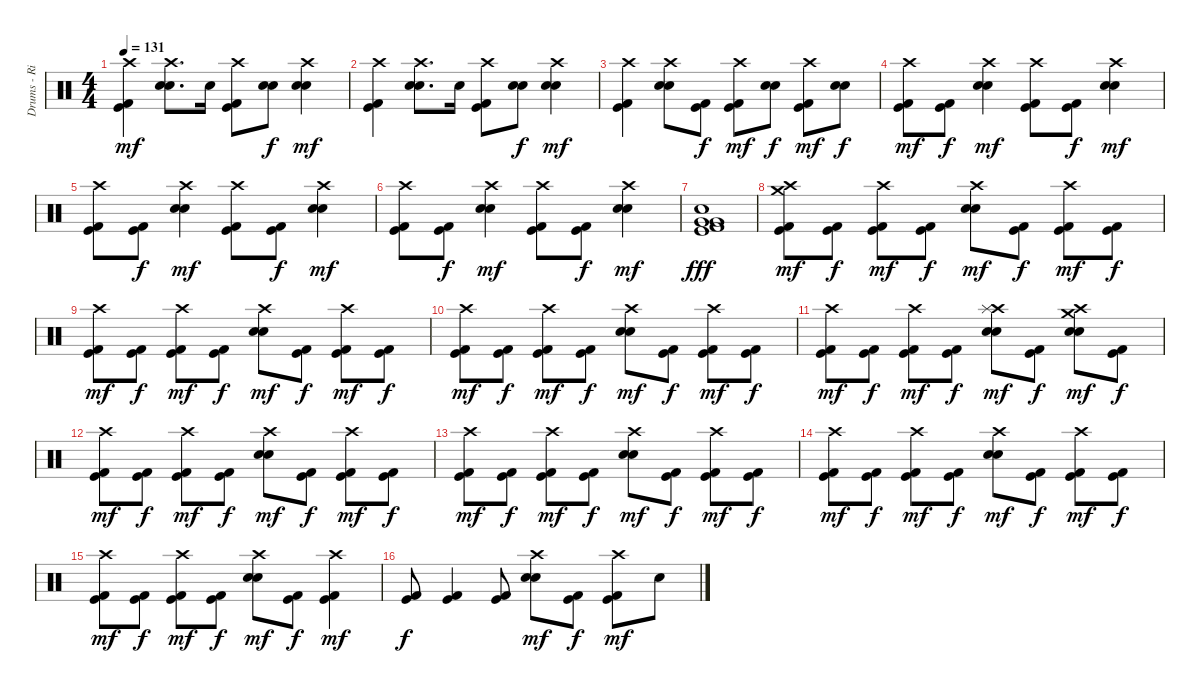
\track ("Drums - Rian" "Drums - Ri") {instrument percussion}
\staff
\articulation defaults
\ts (4 4)
\tempo 131
\clef neutral
\ks c
("Kick (hit) 2" "Kick (hit)" "Crash high (hit)").4{dy mf} ("Electric Snare (hit)" "Electric Snare (hit)" "Crash high (hit)").8{d} "Electric Snare (hit)".16 ("Kick (hit) 2" "Kick (hit)" "Crash high (hit)").8 ("Electric Snare (hit)" "Electric Snare (hit)").8{dy f} ("Electric Snare (hit)" "Electric Snare (hit)" "Crash high (hit)").4{dy mf} |
("Kick (hit) 2" "Kick (hit)" "Crash high (hit)").4 ("Electric Snare (hit)" "Electric Snare (hit)" "Crash high (hit)").8{d} "Electric Snare (hit)".16 ("Kick (hit) 2" "Kick (hit)" "Crash high (hit)").8 ("Electric Snare (hit)" "Electric Snare (hit)").8{dy f} ("Electric Snare (hit)" "Electric Snare (hit)" "Crash high (hit)").4{dy mf} |
("Kick (hit) 2" "Kick (hit)" "Crash high (hit)").4 ("Electric Snare (hit)" "Electric Snare (hit)" "Crash high (hit)").8 ("Kick (hit) 2" "Kick (hit)").8{dy f} ("Kick (hit) 2" "Kick (hit)" "Crash high (hit)").8{dy mf} ("Electric Snare (hit)" "Electric Snare (hit)").8{dy f} ("Kick (hit) 2" "Kick (hit)" "Crash high (hit)").8{dy mf} ("Electric Snare (hit)" "Electric Snare (hit)").8{dy f} |
("Kick (hit) 2" "Kick (hit)" "Crash high (hit)").8{dy mf} ("Kick (hit) 2" "Kick (hit)").8{dy f} ("Electric Snare (hit)" "Electric Snare (hit)" "Crash high (hit)").4{dy mf} ("Kick (hit) 2" "Kick (hit)" "Crash high (hit)").8 ("Kick (hit) 2" "Kick (hit)").8{dy f} ("Electric Snare (hit)" "Electric Snare (hit)" "Crash high (hit)").4{dy mf} |
("Kick (hit) 2" "Kick (hit)" "Crash high (hit)").8 ("Kick (hit) 2" "Kick (hit)").8{dy f} ("Electric Snare (hit)" "Electric Snare (hit)" "Crash high (hit)").4{dy mf} ("Kick (hit) 2" "Kick (hit)" "Crash high (hit)").8 ("Kick (hit) 2" "Kick (hit)").8{dy f} ("Electric Snare (hit)" "Electric Snare (hit)" "Crash high (hit)").4{dy mf} |
("Kick (hit) 2" "Kick (hit)" "Crash high (hit)").8 ("Kick (hit) 2" "Kick (hit)").8{dy f} ("Electric Snare (hit)" "Electric Snare (hit)" "Crash high (hit)").4{dy mf} ("Kick (hit) 2" "Kick (hit)" "Crash high (hit)").8 ("Kick (hit) 2" "Kick (hit)").8{dy f} ("Electric Snare (hit)" "Electric Snare (hit)" "Crash high (hit)").4{dy mf} |
("Kick (hit) 2" "Kick (hit)" "Electric Snare (hit)" "Very Low Tom (hit)" "Very Low Tom (hit)").1{dy fff} |
("Kick (hit) 2" "Kick (hit)" "Crash high (hit)" "Crash medium (hit)").8{dy mf} ("Kick (hit) 2" "Kick (hit)").8{dy f} ("Kick (hit) 2" "Kick (hit)" "Crash high (hit)").8{dy mf} ("Kick (hit) 2" "Kick (hit)").8{dy f} ("Electric Snare (hit)" "Electric Snare (hit)" "Crash high (hit)").8{dy mf} ("Kick (hit) 2" "Kick (hit)").8{dy f} ("Kick (hit) 2" "Kick (hit)" "Crash high (hit)").8{dy mf} ("Kick (hit) 2" "Kick (hit)").8{dy f} |
("Kick (hit) 2" "Kick (hit)" "Crash high (hit)").8{dy mf} ("Kick (hit) 2" "Kick (hit)").8{dy f} ("Kick (hit) 2" "Kick (hit)" "Crash high (hit)").8{dy mf} ("Kick (hit) 2" "Kick (hit)").8{dy f} ("Electric Snare (hit)" "Electric Snare (hit)" "Crash high (hit)").8{dy mf} ("Kick (hit) 2" "Kick (hit)").8{dy f} ("Kick (hit) 2" "Kick (hit)" "Crash high (hit)").8{dy mf} ("Kick (hit) 2" "Kick (hit)").8{dy f} |
("Kick (hit) 2" "Kick (hit)" "Crash high (hit)").8{dy mf} ("Kick (hit) 2" "Kick (hit)").8{dy f} ("Kick (hit) 2" "Kick (hit)" "Crash high (hit)").8{dy mf} ("Kick (hit) 2" "Kick (hit)").8{dy f} ("Electric Snare (hit)" "Electric Snare (hit)" "Crash high (hit)").8{dy mf} ("Kick (hit) 2" "Kick (hit)").8{dy f} ("Kick (hit) 2" "Kick (hit)" "Crash high (hit)").8{dy mf} ("Kick (hit) 2" "Kick (hit)").8{dy f} |
("Kick (hit) 2" "Kick (hit)" "Crash high (hit)").8{dy mf} ("Kick (hit) 2" "Kick (hit)").8{dy f} ("Kick (hit) 2" "Kick (hit)" "Crash high (hit)").8{dy mf} ("Kick (hit) 2" "Kick (hit)").8{dy f} ("Electric Snare (hit)" "Electric Snare (hit)" "Crash high (hit)" "Splash (hit)").8{dy mf} ("Kick (hit) 2" "Kick (hit)").8{dy f} ("Electric Snare (hit)" "Electric Snare (hit)" "Crash high (hit)" "Crash medium (hit)").8{dy mf} ("Kick (hit) 2" "Kick (hit)").8{dy f} |
("Kick (hit) 2" "Kick (hit)" "Crash high (hit)").8{dy mf} ("Kick (hit) 2" "Kick (hit)").8{dy f} ("Kick (hit) 2" "Kick (hit)" "Crash high (hit)").8{dy mf} ("Kick (hit) 2" "Kick (hit)").8{dy f} ("Electric Snare (hit)" "Electric Snare (hit)" "Crash high (hit)").8{dy mf} ("Kick (hit) 2" "Kick (hit)").8{dy f} ("Kick (hit) 2" "Kick (hit)" "Crash high (hit)").8{dy mf} ("Kick (hit) 2" "Kick (hit)").8{dy f} |
("Kick (hit) 2" "Kick (hit)" "Crash high (hit)").8{dy mf} ("Kick (hit) 2" "Kick (hit)").8{dy f} ("Kick (hit) 2" "Kick (hit)" "Crash high (hit)").8{dy mf} ("Kick (hit) 2" "Kick (hit)").8{dy f} ("Electric Snare (hit)" "Electric Snare (hit)" "Crash high (hit)").8{dy mf} ("Kick (hit) 2" "Kick (hit)").8{dy f} ("Kick (hit) 2" "Kick (hit)" "Crash high (hit)").8{dy mf} ("Kick (hit) 2" "Kick (hit)").8{dy f} |
("Kick (hit) 2" "Kick (hit)" "Crash high (hit)").8{dy mf} ("Kick (hit) 2" "Kick (hit)").8{dy f} ("Kick (hit) 2" "Kick (hit)" "Crash high (hit)").8{dy mf} ("Kick (hit) 2" "Kick (hit)").8{dy f} ("Electric Snare (hit)" "Electric Snare (hit)" "Crash high (hit)").8{dy mf} ("Kick (hit) 2" "Kick (hit)").8{dy f} ("Kick (hit) 2" "Kick (hit)" "Crash high (hit)").8{dy mf} ("Kick (hit) 2" "Kick (hit)").8{dy f} |
("Kick (hit) 2" "Kick (hit)" "Crash high (hit)").8{dy mf} ("Kick (hit) 2" "Kick (hit)").8{dy f} ("Kick (hit) 2" "Kick (hit)" "Crash high (hit)").8{dy mf} ("Kick (hit) 2" "Kick (hit)").8{dy f} ("Electric Snare (hit)" "Electric Snare (hit)" "Crash high (hit)").8{dy mf} ("Kick (hit) 2" "Kick (hit)").8{dy f} ("Kick (hit) 2" "Kick (hit)" "Crash high (hit)").4{dy mf} |
("Kick (hit) 2" "Kick (hit)").8{dy f} ("Kick (hit) 2" "Kick (hit)").4 ("Kick (hit) 2" "Kick (hit)").8 ("Electric Snare (hit)" "Electric Snare (hit)" "Crash high (hit)").8{dy mf} ("Kick (hit) 2" "Kick (hit)").8{dy f} ("Kick (hit) 2" "Kick (hit)" "Crash high (hit)").8{dy mf} "Electric Snare (hit)".8
